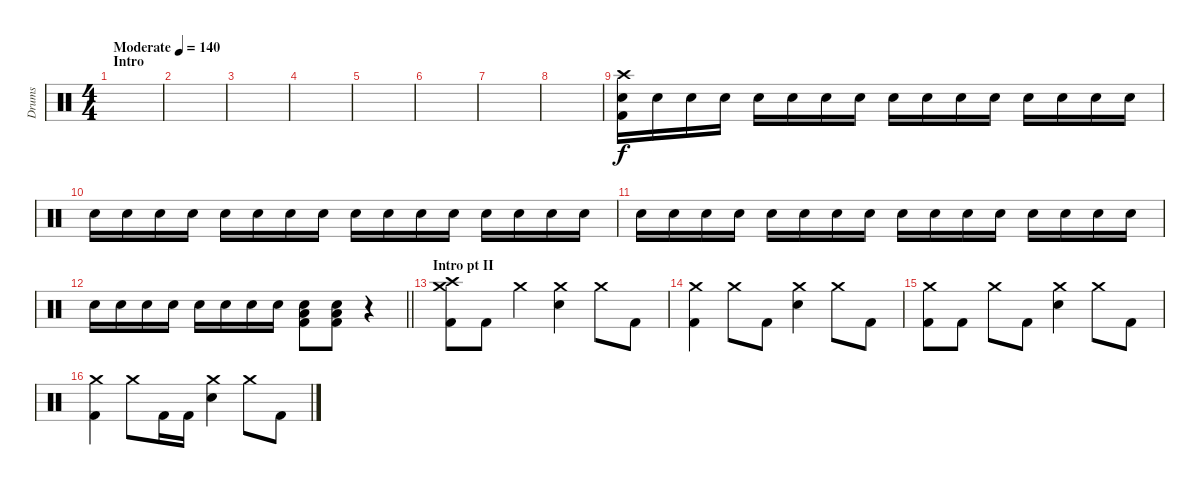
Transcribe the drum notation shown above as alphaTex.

\track ("Drums" "Drums") {instrument percussion}
\staff {score}
\articulation defaults
\ts (4 4)
\section ("" "Intro")
\tempo (140 "Moderate")
\clef neutral
\ks c
|
|
|
|
|
|
|
|
("Crash high (hit)" "Electric Snare (hit)" "Kick (hit) 2").16{volume 13} "Electric Snare (hit)".16 "Electric Snare (hit)".16 "Electric Snare (hit)".16 "Electric Snare (hit)".16 "Electric Snare (hit)".16 "Electric Snare (hit)".16 "Electric Snare (hit)".16 "Electric Snare (hit)".16 "Electric Snare (hit)".16 "Electric Snare (hit)".16 "Electric Snare (hit)".16 "Electric Snare (hit)".16 "Electric Snare (hit)".16 "Electric Snare (hit)".16 "Electric Snare (hit)".16 |
"Electric Snare (hit)".16 "Electric Snare (hit)".16 "Electric Snare (hit)".16 "Electric Snare (hit)".16 "Electric Snare (hit)".16 "Electric Snare (hit)".16 "Electric Snare (hit)".16 "Electric Snare (hit)".16 "Electric Snare (hit)".16 "Electric Snare (hit)".16 "Electric Snare (hit)".16 "Electric Snare (hit)".16 "Electric Snare (hit)".16 "Electric Snare (hit)".16 "Electric Snare (hit)".16 "Electric Snare (hit)".16 |
"Electric Snare (hit)".16 "Electric Snare (hit)".16 "Electric Snare (hit)".16 "Electric Snare (hit)".16 "Electric Snare (hit)".16 "Electric Snare (hit)".16 "Electric Snare (hit)".16 "Electric Snare (hit)".16 "Electric Snare (hit)".16 "Electric Snare (hit)".16 "Electric Snare (hit)".16 "Electric Snare (hit)".16 "Electric Snare (hit)".16 "Electric Snare (hit)".16 "Electric Snare (hit)".16 "Electric Snare (hit)".16 |
\barLineRight lightlight "Electric Snare (hit)".16 "Electric Snare (hit)".16 "Electric Snare (hit)".16 "Electric Snare (hit)".16 "Electric Snare (hit)".16 "Electric Snare (hit)".16 "Electric Snare (hit)".16 "Electric Snare (hit)".16
("Low Floor Tom (hit)" "Electric Snare (hit)" "Kick (hit) 2").8 ("Low Floor Tom (hit)" "Electric Snare (hit)" "Kick (hit) 2").8 r.4 |
\section ("" "Intro pt II")
("Crash high (hit)" "Crash medium (hit)" "Kick (hit) 2").8 "Kick (hit) 2".8 "Crash medium (hit)".4 ("Crash medium (hit)" "Electric Snare (hit)").4 "Crash medium (hit)".8 "Kick (hit) 2".8 |
("Crash medium (hit)" "Kick (hit) 2").4 "Crash medium (hit)".8 "Kick (hit) 2".8 ("Crash medium (hit)" "Electric Snare (hit)").4 "Crash medium (hit)".8 "Kick (hit) 2".8 |
("Crash medium (hit)" "Kick (hit) 2").8 "Kick (hit) 2".8 "Crash medium (hit)".8 "Kick (hit) 2".8 ("Crash medium (hit)" "Electric Snare (hit)").4 "Crash medium (hit)".8 "Kick (hit) 2".8 |
("Crash medium (hit)" "Kick (hit) 2").4 "Crash medium (hit)".8 "Kick (hit) 2".16 "Kick (hit) 2".16 ("Crash medium (hit)" "Electric Snare (hit)").4 "Crash medium (hit)".8 "Kick (hit) 2".8
